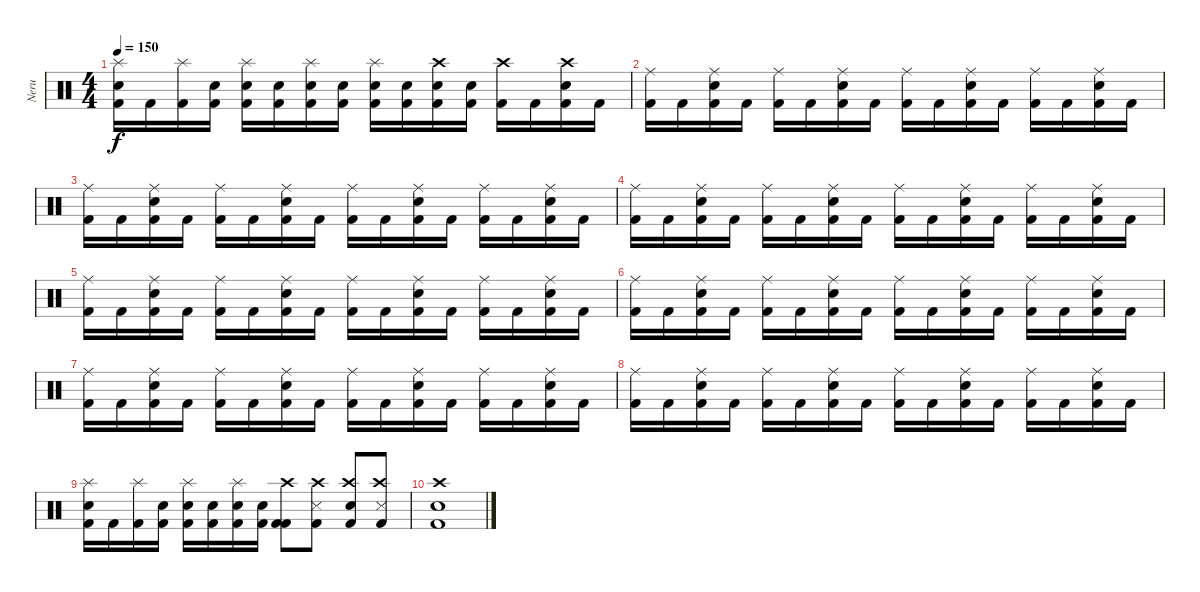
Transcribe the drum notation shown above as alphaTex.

\track ("Neru" "Neru") {instrument percussion}
\staff {score}
\articulation defaults
\ts (4 4)
\tempo 150
\clef neutral
\ks c
("Kick (hit) 2" "Electric Snare (hit)" "Splash (hit)").16{dy f} "Kick (hit) 2".16 ("Kick (hit) 2" "Splash (hit)").16 ("Kick (hit) 2" "Electric Snare (hit)").16 ("Kick (hit) 2" "Electric Snare (hit)" "Splash (hit)").16 ("Kick (hit) 2" "Electric Snare (hit)").16 ("Kick (hit) 2" "Electric Snare (hit)" "Splash (hit)").16 ("Kick (hit) 2" "Electric Snare (hit)").16 ("Kick (hit) 2" "Electric Snare (hit)" "Splash (hit)").16 ("Kick (hit) 2" "Electric Snare (hit)").16 ("Kick (hit) 2" "Electric Snare (hit)" "Crash high (hit)").16 ("Kick (hit) 2" "Electric Snare (hit)").16 ("Kick (hit) 2" "Crash high (hit)").16 "Kick (hit) 2".16 ("Kick (hit) 2" "Electric Snare (hit)" "Crash high (hit)").16 "Kick (hit) 2".16 |
("Kick (hit) 2" "Ride (middle)").16 "Kick (hit) 2".16 ("Kick (hit) 2" "Electric Snare (hit)" "Ride (middle)").16 "Kick (hit) 2".16 ("Kick (hit) 2" "Ride (middle)").16 "Kick (hit) 2".16 ("Kick (hit) 2" "Electric Snare (hit)" "Ride (middle)").16 "Kick (hit) 2".16 ("Kick (hit) 2" "Ride (middle)").16 "Kick (hit) 2".16 ("Kick (hit) 2" "Electric Snare (hit)" "Ride (middle)").16 "Kick (hit) 2".16 ("Kick (hit) 2" "Ride (middle)").16 "Kick (hit) 2".16 ("Kick (hit) 2" "Electric Snare (hit)" "Ride (middle)").16 "Kick (hit) 2".16 |
("Kick (hit) 2" "Ride (middle)").16 "Kick (hit) 2".16 ("Kick (hit) 2" "Electric Snare (hit)" "Ride (middle)").16 "Kick (hit) 2".16 ("Kick (hit) 2" "Ride (middle)").16 "Kick (hit) 2".16 ("Kick (hit) 2" "Electric Snare (hit)" "Ride (middle)").16 "Kick (hit) 2".16 ("Kick (hit) 2" "Ride (middle)").16 "Kick (hit) 2".16 ("Kick (hit) 2" "Electric Snare (hit)" "Ride (middle)").16 "Kick (hit) 2".16 ("Kick (hit) 2" "Ride (middle)").16 "Kick (hit) 2".16 ("Kick (hit) 2" "Electric Snare (hit)" "Ride (middle)").16 "Kick (hit) 2".16 |
("Kick (hit) 2" "Ride (middle)").16 "Kick (hit) 2".16 ("Kick (hit) 2" "Electric Snare (hit)" "Ride (middle)").16 "Kick (hit) 2".16 ("Kick (hit) 2" "Ride (middle)").16 "Kick (hit) 2".16 ("Kick (hit) 2" "Electric Snare (hit)" "Ride (middle)").16 "Kick (hit) 2".16 ("Kick (hit) 2" "Ride (middle)").16 "Kick (hit) 2".16 ("Kick (hit) 2" "Electric Snare (hit)" "Ride (middle)").16 "Kick (hit) 2".16 ("Kick (hit) 2" "Ride (middle)").16 "Kick (hit) 2".16 ("Kick (hit) 2" "Electric Snare (hit)" "Ride (middle)").16 "Kick (hit) 2".16 |
("Kick (hit) 2" "Ride (middle)").16 "Kick (hit) 2".16 ("Kick (hit) 2" "Electric Snare (hit)" "Ride (middle)").16 "Kick (hit) 2".16 ("Kick (hit) 2" "Ride (middle)").16 "Kick (hit) 2".16 ("Kick (hit) 2" "Electric Snare (hit)" "Ride (middle)").16 "Kick (hit) 2".16 ("Kick (hit) 2" "Ride (middle)").16 "Kick (hit) 2".16 ("Kick (hit) 2" "Electric Snare (hit)" "Ride (middle)").16 "Kick (hit) 2".16 ("Kick (hit) 2" "Ride (middle)").16 "Kick (hit) 2".16 ("Kick (hit) 2" "Electric Snare (hit)" "Ride (middle)").16 "Kick (hit) 2".16 |
("Kick (hit) 2" "Ride (middle)").16 "Kick (hit) 2".16 ("Kick (hit) 2" "Electric Snare (hit)" "Ride (middle)").16 "Kick (hit) 2".16 ("Kick (hit) 2" "Ride (middle)").16 "Kick (hit) 2".16 ("Kick (hit) 2" "Electric Snare (hit)" "Ride (middle)").16 "Kick (hit) 2".16 ("Kick (hit) 2" "Ride (middle)").16 "Kick (hit) 2".16 ("Kick (hit) 2" "Electric Snare (hit)" "Ride (middle)").16 "Kick (hit) 2".16 ("Kick (hit) 2" "Ride (middle)").16 "Kick (hit) 2".16 ("Kick (hit) 2" "Electric Snare (hit)" "Ride (middle)").16 "Kick (hit) 2".16 |
("Kick (hit) 2" "Ride (middle)").16 "Kick (hit) 2".16 ("Kick (hit) 2" "Electric Snare (hit)" "Ride (middle)").16 "Kick (hit) 2".16 ("Kick (hit) 2" "Ride (middle)").16 "Kick (hit) 2".16 ("Kick (hit) 2" "Electric Snare (hit)" "Ride (middle)").16 "Kick (hit) 2".16 ("Kick (hit) 2" "Ride (middle)").16 "Kick (hit) 2".16 ("Kick (hit) 2" "Electric Snare (hit)" "Ride (middle)").16 "Kick (hit) 2".16 ("Kick (hit) 2" "Ride (middle)").16 "Kick (hit) 2".16 ("Kick (hit) 2" "Electric Snare (hit)" "Ride (middle)").16 "Kick (hit) 2".16 |
("Kick (hit) 2" "Ride (middle)").16 "Kick (hit) 2".16 ("Kick (hit) 2" "Electric Snare (hit)" "Ride (middle)").16 "Kick (hit) 2".16 ("Kick (hit) 2" "Ride (middle)").16 "Kick (hit) 2".16 ("Kick (hit) 2" "Electric Snare (hit)" "Ride (middle)").16 "Kick (hit) 2".16 ("Kick (hit) 2" "Ride (middle)").16 "Kick (hit) 2".16 ("Kick (hit) 2" "Electric Snare (hit)" "Ride (middle)").16 "Kick (hit) 2".16 ("Kick (hit) 2" "Ride (middle)").16 "Kick (hit) 2".16 ("Kick (hit) 2" "Electric Snare (hit)" "Ride (middle)").16 "Kick (hit) 2".16 |
("Kick (hit) 2" "Electric Snare (hit)" "Splash (hit)").16 "Kick (hit) 2".16 ("Kick (hit) 2" "Splash (hit)").16 ("Kick (hit) 2" "Electric Snare (hit)").16 ("Kick (hit) 2" "Electric Snare (hit)" "Splash (hit)").16 ("Kick (hit) 2" "Electric Snare (hit)").16 ("Kick (hit) 2" "Electric Snare (hit)" "Splash (hit)").16 ("Kick (hit) 2" "Electric Snare (hit)").16 ("Kick (hit) 2" "Kick (hit) 2" "Crash high (hit)").8 ("Kick (hit) 2" "Snare (side stick) 3" "Crash high (hit)").8 ("Kick (hit) 2" "Snare (hit) 2" "Crash high (hit)").8 ("Kick (hit) 2" "Snare (side stick) 3" "Crash high (hit)").8 |
("Kick (hit) 2" "Snare (hit) 2" "Crash high (hit)").1
